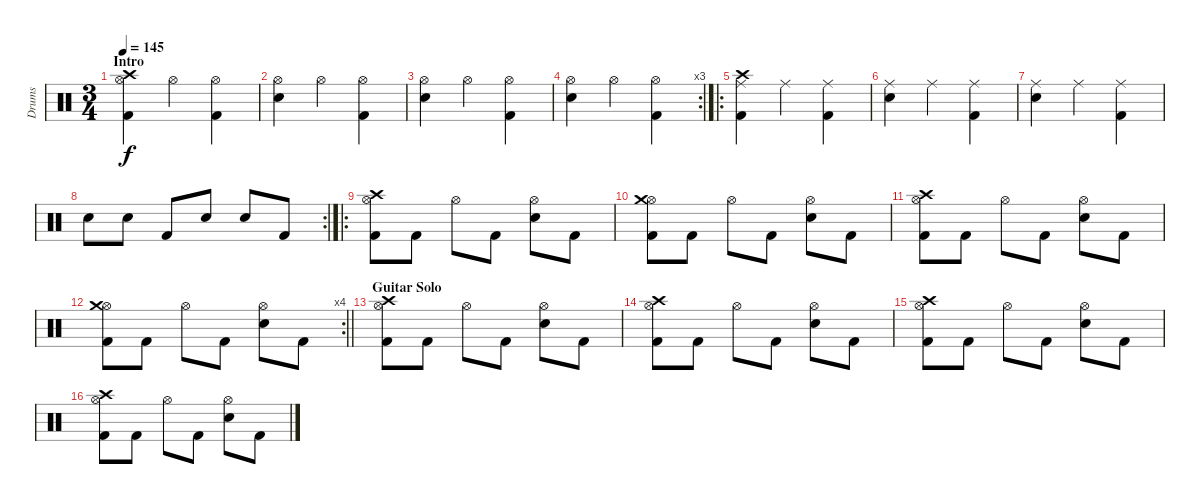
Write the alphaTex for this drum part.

\track ("Drums" "Drums") {instrument percussion}
\staff {score}
\articulation defaults
\ts (3 4)
\section ("" "Intro")
\tempo 145
\clef neutral
\ks c
("Hi-Hat (open)" "Crash high (hit)" "Kick (hit) 2").4{dy f} "Hi-Hat (open)".4 ("Hi-Hat (open)" "Kick (hit) 2").4 |
("Hi-Hat (open)" "Electric Snare (hit)").4 "Hi-Hat (open)".4 ("Hi-Hat (open)" "Kick (hit) 2").4 |
("Hi-Hat (open)" "Electric Snare (hit)").4 "Hi-Hat (open)".4 ("Hi-Hat (open)" "Kick (hit) 2").4 |
\rc 3
("Hi-Hat (open)" "Electric Snare (hit)").4 "Hi-Hat (open)".4 ("Hi-Hat (open)" "Kick (hit) 2").4 |
\ro
("Ride (middle)" "Crash high (hit)" "Kick (hit) 2").4 "Ride (middle)".4 ("Ride (middle)" "Kick (hit) 2").4 |
("Ride (middle)" "Electric Snare (hit)").4 "Ride (middle)".4 ("Ride (middle)" "Kick (hit) 2").4 |
("Ride (middle)" "Electric Snare (hit)").4 "Ride (middle)".4 ("Ride (middle)" "Kick (hit) 2").4 |
\rc 2 "Snare (hit) 2".8 "Electric Snare (hit)".8 "Kick (hit) 2".8 "Snare (hit) 2".8 "Electric Snare (hit)".8 "Kick (hit) 2".8
|
\ro
("Hi-Hat (open)" "Crash high (hit)" "Kick (hit) 2").8 "Kick (hit) 2".8 "Hi-Hat (open)".8 "Kick (hit) 2".8 ("Hi-Hat (open)" "Electric Snare (hit)").8 "Kick (hit) 2".8 |
("Hi-Hat (open)" "Crash medium (hit)" "Kick (hit) 2").8 "Kick (hit) 2".8 "Hi-Hat (open)".8 "Kick (hit) 2".8 ("Hi-Hat (open)" "Electric Snare (hit)").8 "Kick (hit) 2".8 |
("Hi-Hat (open)" "Crash high (hit)" "Kick (hit) 2").8 "Kick (hit) 2".8 "Hi-Hat (open)".8 "Kick (hit) 2".8 ("Hi-Hat (open)" "Electric Snare (hit)").8 "Kick (hit) 2".8 |
\rc 4
\barLineRight lightlight
("Hi-Hat (open)" "Crash medium (hit)" "Kick (hit) 2").8 "Kick (hit) 2".8 "Hi-Hat (open)".8 "Kick (hit) 2".8 ("Hi-Hat (open)" "Electric Snare (hit)").8 "Kick (hit) 2".8 |
\section ("" "Guitar Solo")
("Hi-Hat (open)" "Crash high (hit)" "Kick (hit) 2").8 "Kick (hit) 2".8 "Hi-Hat (open)".8 "Kick (hit) 2".8 ("Hi-Hat (open)" "Electric Snare (hit)").8 "Kick (hit) 2".8 |
("Hi-Hat (open)" "Crash high (hit)" "Kick (hit) 2").8 "Kick (hit) 2".8 "Hi-Hat (open)".8 "Kick (hit) 2".8 ("Hi-Hat (open)" "Electric Snare (hit)").8 "Kick (hit) 2".8 |
("Hi-Hat (open)" "Crash high (hit)" "Kick (hit) 2").8 "Kick (hit) 2".8 "Hi-Hat (open)".8 "Kick (hit) 2".8 ("Hi-Hat (open)" "Electric Snare (hit)").8 "Kick (hit) 2".8 |
("Hi-Hat (open)" "Crash high (hit)" "Kick (hit) 2").8 "Kick (hit) 2".8 "Hi-Hat (open)".8 "Kick (hit) 2".8 ("Hi-Hat (open)" "Electric Snare (hit)").8 "Kick (hit) 2".8
